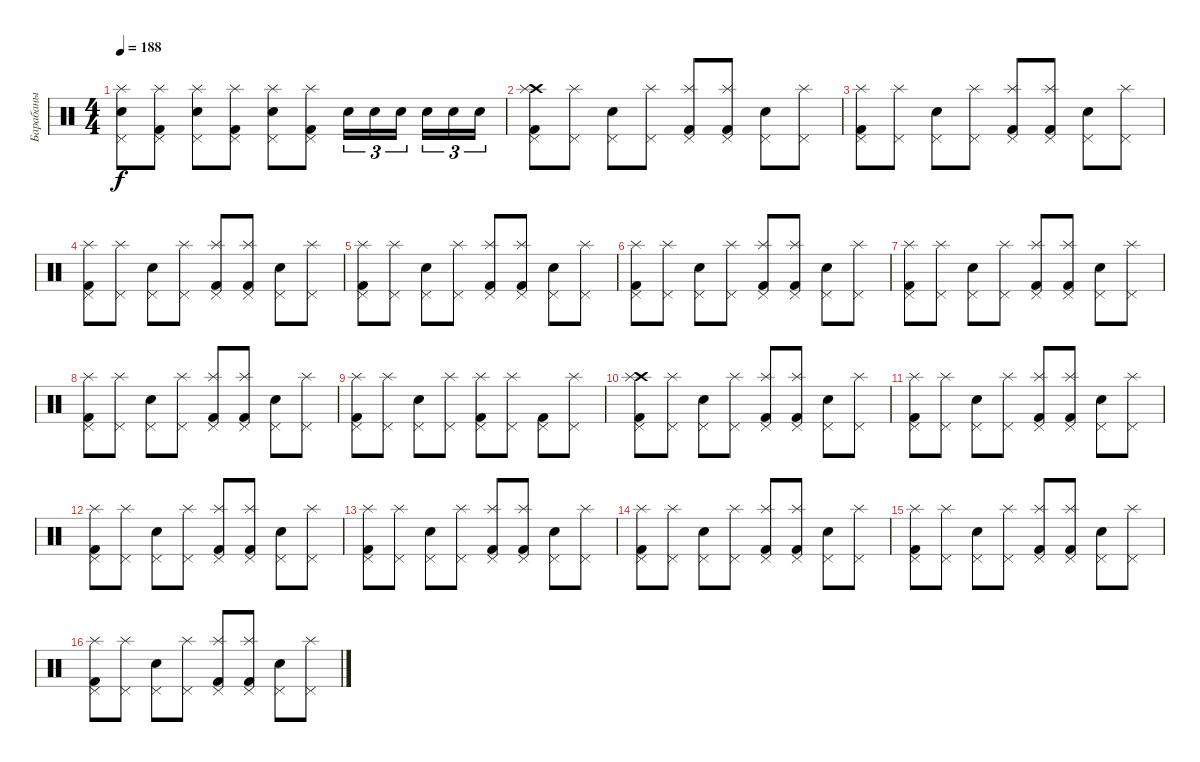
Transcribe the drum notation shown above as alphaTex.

\track ("Барабаны" "Барабаны") {instrument percussion}
\staff {score}
\articulation defaults
\ts (4 4)
\tempo 188
\clef neutral
\ks c
("Pedal Hi-Hat (hit)" "Electric Snare (hit)" "Splash (hit)").8{dy f} ("Pedal Hi-Hat (hit)" "Kick (hit) 2" "Splash (hit)").8 ("Pedal Hi-Hat (hit)" "Electric Snare (hit)" "Splash (hit)").8 ("Pedal Hi-Hat (hit)" "Kick (hit) 2" "Splash (hit)").8 ("Pedal Hi-Hat (hit)" "Electric Snare (hit)" "Splash (hit)").8 ("Pedal Hi-Hat (hit)" "Kick (hit) 2" "Splash (hit)").8 "Electric Snare (hit)".16{tu (3 2)} "Electric Snare (hit)".16{tu (3 2)} "Electric Snare (hit)".16{tu (3 2) beam splitsecondary} "Electric Snare (hit)".16{tu (3 2)} "Electric Snare (hit)".16{tu (3 2)} "Electric Snare (hit)".16{tu (3 2)} |
("Crash high (hit)" "Splash (hit)" "Pedal Hi-Hat (hit)" "Kick (hit) 2").8 ("Splash (hit)" "Pedal Hi-Hat (hit)").8 ("Pedal Hi-Hat (hit)" "Electric Snare (hit)").8 ("Splash (hit)" "Pedal Hi-Hat (hit)").8 ("Splash (hit)" "Pedal Hi-Hat (hit)" "Kick (hit) 2").8 ("Splash (hit)" "Pedal Hi-Hat (hit)" "Kick (hit) 2").8 ("Pedal Hi-Hat (hit)" "Electric Snare (hit)").8 ("Splash (hit)" "Pedal Hi-Hat (hit)").8 |
("Splash (hit)" "Pedal Hi-Hat (hit)" "Kick (hit) 2").8 ("Splash (hit)" "Pedal Hi-Hat (hit)").8 ("Pedal Hi-Hat (hit)" "Electric Snare (hit)").8 ("Splash (hit)" "Pedal Hi-Hat (hit)").8 ("Splash (hit)" "Pedal Hi-Hat (hit)" "Kick (hit) 2").8 ("Splash (hit)" "Pedal Hi-Hat (hit)" "Kick (hit) 2").8 ("Pedal Hi-Hat (hit)" "Electric Snare (hit)").8 ("Splash (hit)" "Pedal Hi-Hat (hit)").8 |
("Splash (hit)" "Pedal Hi-Hat (hit)" "Kick (hit) 2").8 ("Splash (hit)" "Pedal Hi-Hat (hit)").8 ("Pedal Hi-Hat (hit)" "Electric Snare (hit)").8 ("Splash (hit)" "Pedal Hi-Hat (hit)").8 ("Splash (hit)" "Pedal Hi-Hat (hit)" "Kick (hit) 2").8 ("Splash (hit)" "Pedal Hi-Hat (hit)" "Kick (hit) 2").8 ("Pedal Hi-Hat (hit)" "Electric Snare (hit)").8 ("Splash (hit)" "Pedal Hi-Hat (hit)").8 |
("Splash (hit)" "Pedal Hi-Hat (hit)" "Kick (hit) 2").8 ("Splash (hit)" "Pedal Hi-Hat (hit)").8 ("Pedal Hi-Hat (hit)" "Electric Snare (hit)").8 ("Splash (hit)" "Pedal Hi-Hat (hit)").8 ("Splash (hit)" "Pedal Hi-Hat (hit)" "Kick (hit) 2").8 ("Splash (hit)" "Pedal Hi-Hat (hit)" "Kick (hit) 2").8 ("Pedal Hi-Hat (hit)" "Electric Snare (hit)").8 ("Splash (hit)" "Pedal Hi-Hat (hit)").8 |
("Splash (hit)" "Pedal Hi-Hat (hit)" "Kick (hit) 2").8 ("Splash (hit)" "Pedal Hi-Hat (hit)").8 ("Pedal Hi-Hat (hit)" "Electric Snare (hit)").8 ("Splash (hit)" "Pedal Hi-Hat (hit)").8 ("Splash (hit)" "Pedal Hi-Hat (hit)" "Kick (hit) 2").8 ("Splash (hit)" "Pedal Hi-Hat (hit)" "Kick (hit) 2").8 ("Pedal Hi-Hat (hit)" "Electric Snare (hit)").8 ("Splash (hit)" "Pedal Hi-Hat (hit)").8 |
("Splash (hit)" "Pedal Hi-Hat (hit)" "Kick (hit) 2").8 ("Splash (hit)" "Pedal Hi-Hat (hit)").8 ("Pedal Hi-Hat (hit)" "Electric Snare (hit)").8 ("Splash (hit)" "Pedal Hi-Hat (hit)").8 ("Splash (hit)" "Pedal Hi-Hat (hit)" "Kick (hit) 2").8 ("Splash (hit)" "Pedal Hi-Hat (hit)" "Kick (hit) 2").8 ("Pedal Hi-Hat (hit)" "Electric Snare (hit)").8 ("Splash (hit)" "Pedal Hi-Hat (hit)").8 |
("Splash (hit)" "Pedal Hi-Hat (hit)" "Kick (hit) 2").8 ("Splash (hit)" "Pedal Hi-Hat (hit)").8 ("Pedal Hi-Hat (hit)" "Electric Snare (hit)").8 ("Splash (hit)" "Pedal Hi-Hat (hit)").8 ("Splash (hit)" "Pedal Hi-Hat (hit)" "Kick (hit) 2").8 ("Splash (hit)" "Pedal Hi-Hat (hit)" "Kick (hit) 2").8 ("Pedal Hi-Hat (hit)" "Electric Snare (hit)").8 ("Splash (hit)" "Pedal Hi-Hat (hit)").8 |
("Splash (hit)" "Pedal Hi-Hat (hit)" "Kick (hit) 2").8 ("Splash (hit)" "Pedal Hi-Hat (hit)").8 ("Electric Snare (hit)" "Pedal Hi-Hat (hit)").8 ("Splash (hit)" "Pedal Hi-Hat (hit)").8 ("Splash (hit)" "Pedal Hi-Hat (hit)" "Kick (hit) 2").8 ("Splash (hit)" "Pedal Hi-Hat (hit)").8 ("Kick (hit) 2" "Pedal Hi-Hat (hit)").8 ("Splash (hit)" "Pedal Hi-Hat (hit)").8 |
("Crash high (hit)" "Splash (hit)" "Pedal Hi-Hat (hit)" "Kick (hit) 2").8 ("Splash (hit)" "Pedal Hi-Hat (hit)").8 ("Pedal Hi-Hat (hit)" "Electric Snare (hit)").8 ("Splash (hit)" "Pedal Hi-Hat (hit)").8 ("Splash (hit)" "Pedal Hi-Hat (hit)" "Kick (hit) 2").8 ("Splash (hit)" "Pedal Hi-Hat (hit)" "Kick (hit) 2").8 ("Pedal Hi-Hat (hit)" "Electric Snare (hit)").8 ("Splash (hit)" "Pedal Hi-Hat (hit)").8 |
("Splash (hit)" "Pedal Hi-Hat (hit)" "Kick (hit) 2").8 ("Splash (hit)" "Pedal Hi-Hat (hit)").8 ("Pedal Hi-Hat (hit)" "Electric Snare (hit)").8 ("Splash (hit)" "Pedal Hi-Hat (hit)").8 ("Splash (hit)" "Pedal Hi-Hat (hit)" "Kick (hit) 2").8 ("Splash (hit)" "Pedal Hi-Hat (hit)" "Kick (hit) 2").8 ("Pedal Hi-Hat (hit)" "Electric Snare (hit)").8 ("Splash (hit)" "Pedal Hi-Hat (hit)").8 |
("Splash (hit)" "Pedal Hi-Hat (hit)" "Kick (hit) 2").8 ("Splash (hit)" "Pedal Hi-Hat (hit)").8 ("Pedal Hi-Hat (hit)" "Electric Snare (hit)").8 ("Splash (hit)" "Pedal Hi-Hat (hit)").8 ("Splash (hit)" "Pedal Hi-Hat (hit)" "Kick (hit) 2").8 ("Splash (hit)" "Pedal Hi-Hat (hit)" "Kick (hit) 2").8 ("Pedal Hi-Hat (hit)" "Electric Snare (hit)").8 ("Splash (hit)" "Pedal Hi-Hat (hit)").8 |
("Splash (hit)" "Pedal Hi-Hat (hit)" "Kick (hit) 2").8 ("Splash (hit)" "Pedal Hi-Hat (hit)").8 ("Pedal Hi-Hat (hit)" "Electric Snare (hit)").8 ("Splash (hit)" "Pedal Hi-Hat (hit)").8 ("Splash (hit)" "Pedal Hi-Hat (hit)" "Kick (hit) 2").8 ("Splash (hit)" "Pedal Hi-Hat (hit)" "Kick (hit) 2").8 ("Pedal Hi-Hat (hit)" "Electric Snare (hit)").8 ("Splash (hit)" "Pedal Hi-Hat (hit)").8 |
("Splash (hit)" "Pedal Hi-Hat (hit)" "Kick (hit) 2").8 ("Splash (hit)" "Pedal Hi-Hat (hit)").8 ("Pedal Hi-Hat (hit)" "Electric Snare (hit)").8 ("Splash (hit)" "Pedal Hi-Hat (hit)").8 ("Splash (hit)" "Pedal Hi-Hat (hit)" "Kick (hit) 2").8 ("Splash (hit)" "Pedal Hi-Hat (hit)" "Kick (hit) 2").8 ("Pedal Hi-Hat (hit)" "Electric Snare (hit)").8 ("Splash (hit)" "Pedal Hi-Hat (hit)").8 |
("Splash (hit)" "Pedal Hi-Hat (hit)" "Kick (hit) 2").8 ("Splash (hit)" "Pedal Hi-Hat (hit)").8 ("Pedal Hi-Hat (hit)" "Electric Snare (hit)").8 ("Splash (hit)" "Pedal Hi-Hat (hit)").8 ("Splash (hit)" "Pedal Hi-Hat (hit)" "Kick (hit) 2").8 ("Splash (hit)" "Pedal Hi-Hat (hit)" "Kick (hit) 2").8 ("Pedal Hi-Hat (hit)" "Electric Snare (hit)").8 ("Splash (hit)" "Pedal Hi-Hat (hit)").8 |
("Splash (hit)" "Pedal Hi-Hat (hit)" "Kick (hit) 2").8 ("Splash (hit)" "Pedal Hi-Hat (hit)").8 ("Pedal Hi-Hat (hit)" "Electric Snare (hit)").8 ("Splash (hit)" "Pedal Hi-Hat (hit)").8 ("Splash (hit)" "Pedal Hi-Hat (hit)" "Kick (hit) 2").8 ("Splash (hit)" "Pedal Hi-Hat (hit)" "Kick (hit) 2").8 ("Pedal Hi-Hat (hit)" "Electric Snare (hit)").8 ("Splash (hit)" "Pedal Hi-Hat (hit)").8
